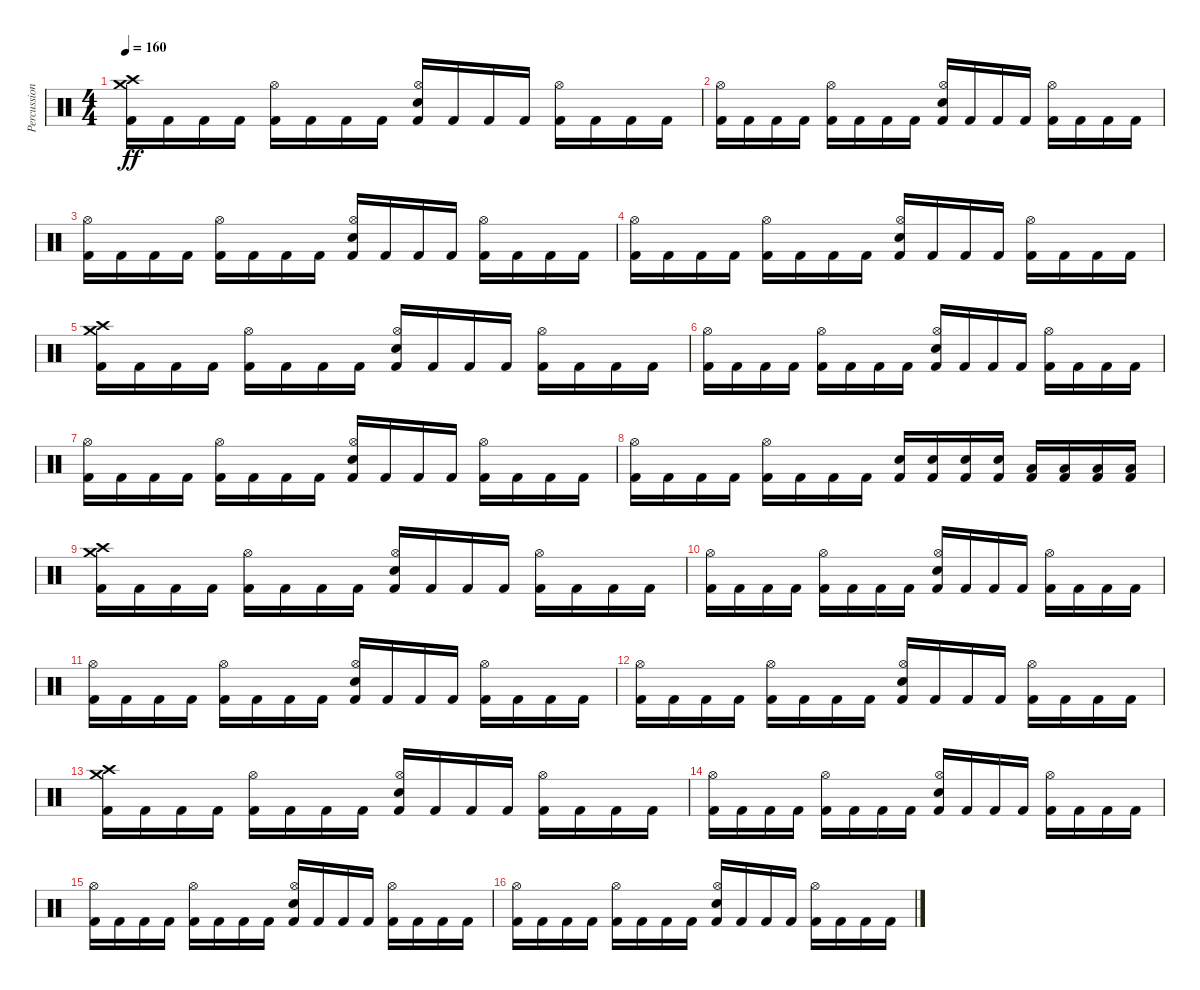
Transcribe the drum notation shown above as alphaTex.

\track ("Percussion" "Percussion") {instrument percussion}
\staff {score}
\articulation defaults
\ts (4 4)
\tempo 160
\clef neutral
\ks c
("Kick (hit) 2" "Crash medium (hit)" "Crash high (hit)").16{dy ff} "Kick (hit) 2".16 "Kick (hit) 2".16 "Kick (hit) 2".16 ("Kick (hit) 2" "Hi-Hat (open)").16 "Kick (hit) 2".16 "Kick (hit) 2".16 "Kick (hit) 2".16 ("Kick (hit) 2" "Hi-Hat (open)" "Electric Snare (hit)").16 "Kick (hit) 2".16 "Kick (hit) 2".16 "Kick (hit) 2".16 ("Kick (hit) 2" "Hi-Hat (open)").16 "Kick (hit) 2".16 "Kick (hit) 2".16 "Kick (hit) 2".16 |
("Kick (hit) 2" "Hi-Hat (open)").16 "Kick (hit) 2".16 "Kick (hit) 2".16 "Kick (hit) 2".16 ("Kick (hit) 2" "Hi-Hat (open)").16 "Kick (hit) 2".16 "Kick (hit) 2".16 "Kick (hit) 2".16 ("Kick (hit) 2" "Hi-Hat (open)" "Electric Snare (hit)").16 "Kick (hit) 2".16 "Kick (hit) 2".16 "Kick (hit) 2".16 ("Kick (hit) 2" "Hi-Hat (open)").16 "Kick (hit) 2".16 "Kick (hit) 2".16 "Kick (hit) 2".16 |
("Kick (hit) 2" "Hi-Hat (open)").16 "Kick (hit) 2".16 "Kick (hit) 2".16 "Kick (hit) 2".16 ("Kick (hit) 2" "Hi-Hat (open)").16 "Kick (hit) 2".16 "Kick (hit) 2".16 "Kick (hit) 2".16 ("Kick (hit) 2" "Hi-Hat (open)" "Electric Snare (hit)").16 "Kick (hit) 2".16 "Kick (hit) 2".16 "Kick (hit) 2".16 ("Kick (hit) 2" "Hi-Hat (open)").16 "Kick (hit) 2".16 "Kick (hit) 2".16 "Kick (hit) 2".16 |
("Kick (hit) 2" "Hi-Hat (open)").16 "Kick (hit) 2".16 "Kick (hit) 2".16 "Kick (hit) 2".16 ("Kick (hit) 2" "Hi-Hat (open)").16 "Kick (hit) 2".16 "Kick (hit) 2".16 "Kick (hit) 2".16 ("Kick (hit) 2" "Hi-Hat (open)" "Electric Snare (hit)").16 "Kick (hit) 2".16 "Kick (hit) 2".16 "Kick (hit) 2".16 ("Kick (hit) 2" "Hi-Hat (open)").16 "Kick (hit) 2".16 "Kick (hit) 2".16 "Kick (hit) 2".16 |
("Kick (hit) 2" "Crash medium (hit)" "Crash high (hit)").16 "Kick (hit) 2".16 "Kick (hit) 2".16 "Kick (hit) 2".16 ("Kick (hit) 2" "Hi-Hat (open)").16 "Kick (hit) 2".16 "Kick (hit) 2".16 "Kick (hit) 2".16 ("Kick (hit) 2" "Hi-Hat (open)" "Electric Snare (hit)").16 "Kick (hit) 2".16 "Kick (hit) 2".16 "Kick (hit) 2".16 ("Kick (hit) 2" "Hi-Hat (open)").16 "Kick (hit) 2".16 "Kick (hit) 2".16 "Kick (hit) 2".16 |
("Kick (hit) 2" "Hi-Hat (open)").16 "Kick (hit) 2".16 "Kick (hit) 2".16 "Kick (hit) 2".16 ("Kick (hit) 2" "Hi-Hat (open)").16 "Kick (hit) 2".16 "Kick (hit) 2".16 "Kick (hit) 2".16 ("Kick (hit) 2" "Hi-Hat (open)" "Electric Snare (hit)").16 "Kick (hit) 2".16 "Kick (hit) 2".16 "Kick (hit) 2".16 ("Kick (hit) 2" "Hi-Hat (open)").16 "Kick (hit) 2".16 "Kick (hit) 2".16 "Kick (hit) 2".16 |
("Kick (hit) 2" "Hi-Hat (open)").16 "Kick (hit) 2".16 "Kick (hit) 2".16 "Kick (hit) 2".16 ("Kick (hit) 2" "Hi-Hat (open)").16 "Kick (hit) 2".16 "Kick (hit) 2".16 "Kick (hit) 2".16 ("Kick (hit) 2" "Hi-Hat (open)" "Electric Snare (hit)").16 "Kick (hit) 2".16 "Kick (hit) 2".16 "Kick (hit) 2".16 ("Kick (hit) 2" "Hi-Hat (open)").16 "Kick (hit) 2".16 "Kick (hit) 2".16 "Kick (hit) 2".16 |
("Kick (hit) 2" "Hi-Hat (open)").16 "Kick (hit) 2".16 "Kick (hit) 2".16 "Kick (hit) 2".16 ("Kick (hit) 2" "Hi-Hat (open)").16 "Kick (hit) 2".16 "Kick (hit) 2".16 "Kick (hit) 2".16 ("Kick (hit) 2" "Electric Snare (hit)").16 ("Kick (hit) 2" "Electric Snare (hit)").16 ("Kick (hit) 2" "Electric Snare (hit)").16 ("Kick (hit) 2" "Electric Snare (hit)").16 ("Kick (hit) 2" "Low Tom (hit)").16 ("Kick (hit) 2" "Low Tom (hit)").16 ("Kick (hit) 2" "Low Tom (hit)").16 ("Kick (hit) 2" "Low Tom (hit)").16 |
("Kick (hit) 2" "Crash medium (hit)" "Crash high (hit)").16 "Kick (hit) 2".16 "Kick (hit) 2".16 "Kick (hit) 2".16 ("Kick (hit) 2" "Hi-Hat (open)").16 "Kick (hit) 2".16 "Kick (hit) 2".16 "Kick (hit) 2".16 ("Kick (hit) 2" "Hi-Hat (open)" "Electric Snare (hit)").16 "Kick (hit) 2".16 "Kick (hit) 2".16 "Kick (hit) 2".16 ("Kick (hit) 2" "Hi-Hat (open)").16 "Kick (hit) 2".16 "Kick (hit) 2".16 "Kick (hit) 2".16 |
("Kick (hit) 2" "Hi-Hat (open)").16 "Kick (hit) 2".16 "Kick (hit) 2".16 "Kick (hit) 2".16 ("Kick (hit) 2" "Hi-Hat (open)").16 "Kick (hit) 2".16 "Kick (hit) 2".16 "Kick (hit) 2".16 ("Kick (hit) 2" "Hi-Hat (open)" "Electric Snare (hit)").16 "Kick (hit) 2".16 "Kick (hit) 2".16 "Kick (hit) 2".16 ("Kick (hit) 2" "Hi-Hat (open)").16 "Kick (hit) 2".16 "Kick (hit) 2".16 "Kick (hit) 2".16 |
("Kick (hit) 2" "Hi-Hat (open)").16 "Kick (hit) 2".16 "Kick (hit) 2".16 "Kick (hit) 2".16 ("Kick (hit) 2" "Hi-Hat (open)").16 "Kick (hit) 2".16 "Kick (hit) 2".16 "Kick (hit) 2".16 ("Kick (hit) 2" "Hi-Hat (open)" "Electric Snare (hit)").16 "Kick (hit) 2".16 "Kick (hit) 2".16 "Kick (hit) 2".16 ("Kick (hit) 2" "Hi-Hat (open)").16 "Kick (hit) 2".16 "Kick (hit) 2".16 "Kick (hit) 2".16 |
("Kick (hit) 2" "Hi-Hat (open)").16 "Kick (hit) 2".16 "Kick (hit) 2".16 "Kick (hit) 2".16 ("Kick (hit) 2" "Hi-Hat (open)").16 "Kick (hit) 2".16 "Kick (hit) 2".16 "Kick (hit) 2".16 ("Kick (hit) 2" "Hi-Hat (open)" "Electric Snare (hit)").16 "Kick (hit) 2".16 "Kick (hit) 2".16 "Kick (hit) 2".16 ("Kick (hit) 2" "Hi-Hat (open)").16 "Kick (hit) 2".16 "Kick (hit) 2".16 "Kick (hit) 2".16 |
("Kick (hit) 2" "Crash medium (hit)" "Crash high (hit)").16 "Kick (hit) 2".16 "Kick (hit) 2".16 "Kick (hit) 2".16 ("Kick (hit) 2" "Hi-Hat (open)").16 "Kick (hit) 2".16 "Kick (hit) 2".16 "Kick (hit) 2".16 ("Kick (hit) 2" "Hi-Hat (open)" "Electric Snare (hit)").16 "Kick (hit) 2".16 "Kick (hit) 2".16 "Kick (hit) 2".16 ("Kick (hit) 2" "Hi-Hat (open)").16 "Kick (hit) 2".16 "Kick (hit) 2".16 "Kick (hit) 2".16 |
("Kick (hit) 2" "Hi-Hat (open)").16 "Kick (hit) 2".16 "Kick (hit) 2".16 "Kick (hit) 2".16 ("Kick (hit) 2" "Hi-Hat (open)").16 "Kick (hit) 2".16 "Kick (hit) 2".16 "Kick (hit) 2".16 ("Kick (hit) 2" "Hi-Hat (open)" "Electric Snare (hit)").16 "Kick (hit) 2".16 "Kick (hit) 2".16 "Kick (hit) 2".16 ("Kick (hit) 2" "Hi-Hat (open)").16 "Kick (hit) 2".16 "Kick (hit) 2".16 "Kick (hit) 2".16 |
("Kick (hit) 2" "Hi-Hat (open)").16 "Kick (hit) 2".16 "Kick (hit) 2".16 "Kick (hit) 2".16 ("Kick (hit) 2" "Hi-Hat (open)").16 "Kick (hit) 2".16 "Kick (hit) 2".16 "Kick (hit) 2".16 ("Kick (hit) 2" "Hi-Hat (open)" "Electric Snare (hit)").16 "Kick (hit) 2".16 "Kick (hit) 2".16 "Kick (hit) 2".16 ("Kick (hit) 2" "Hi-Hat (open)").16 "Kick (hit) 2".16 "Kick (hit) 2".16 "Kick (hit) 2".16 |
("Kick (hit) 2" "Hi-Hat (open)").16 "Kick (hit) 2".16 "Kick (hit) 2".16 "Kick (hit) 2".16 ("Kick (hit) 2" "Hi-Hat (open)").16 "Kick (hit) 2".16 "Kick (hit) 2".16 "Kick (hit) 2".16 ("Kick (hit) 2" "Hi-Hat (open)" "Electric Snare (hit)").16 "Kick (hit) 2".16 "Kick (hit) 2".16 "Kick (hit) 2".16 ("Kick (hit) 2" "Hi-Hat (open)").16 "Kick (hit) 2".16 "Kick (hit) 2".16 "Kick (hit) 2".16
